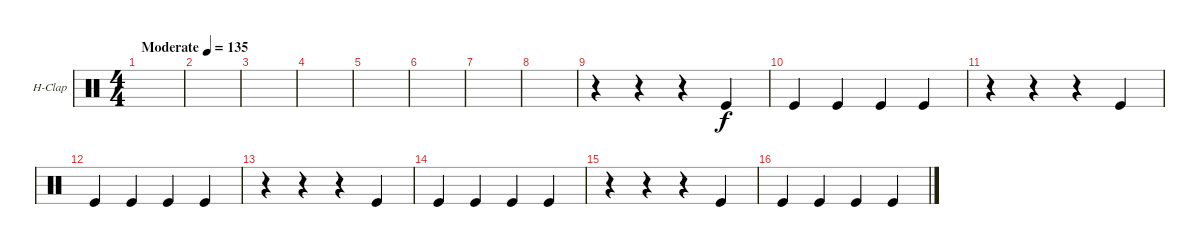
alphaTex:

\bracketExtendMode groupsimilarinstruments
\firstSystemTrackNameOrientation horizontal
\otherSystemsTrackNameOrientation horizontal
\track ("Hand Clap" "H-Clap") {instrument percussion}
\staff {score}
\articulation defaults
\ts (4 4)
\beaming (8 2 2 2 2)
\tempo (135 "Moderate")
\clef neutral
\scale
0.472222
\ks c
|
\scale
0.263889 |
\scale
0.263889 |
\scale
0.333333 |
\scale
0.333333 |
\scale
0.333333 |
\scale
0.333333 |
\scale
0.333333 |
\scale
0.333333 r.4 r.4 r.4 "Kick (hit)".4 |
\scale
0.333333 "Kick (hit)".4 "Kick (hit)".4 "Kick (hit)".4 "Kick (hit)".4 |
\scale
0.333333 r.4 r.4 r.4 "Kick (hit)".4 |
\scale
0.333333 "Kick (hit)".4 "Kick (hit)".4 "Kick (hit)".4 "Kick (hit)".4 |
\scale
0.333333 r.4 r.4 r.4 "Kick (hit)".4 |
\scale
0.333333 "Kick (hit)".4 "Kick (hit)".4 "Kick (hit)".4 "Kick (hit)".4 |
\scale
0.333333 r.4 r.4 r.4 "Kick (hit)".4 |
\scale
0.333333 "Kick (hit)".4 "Kick (hit)".4 "Kick (hit)".4 "Kick (hit)".4
